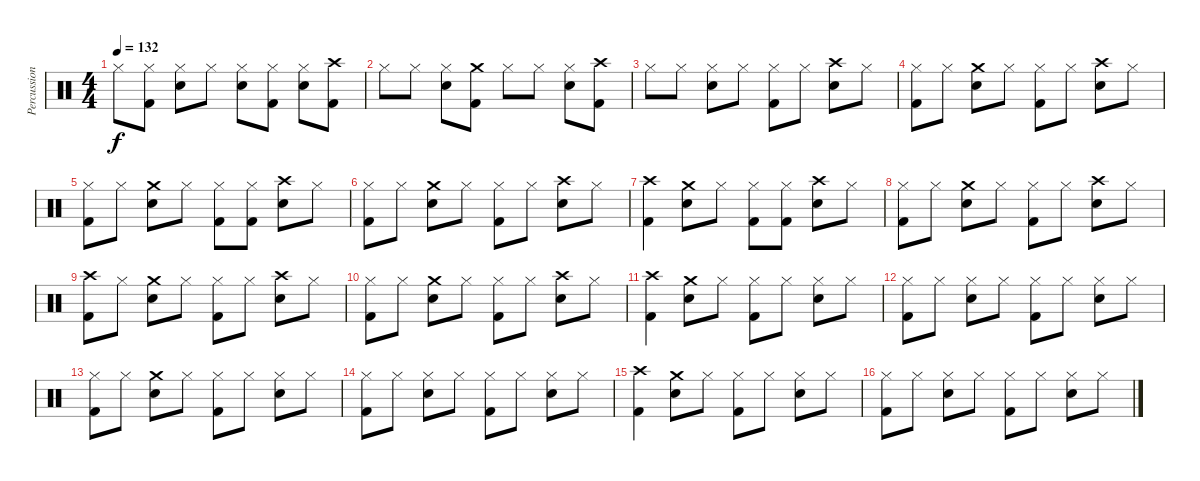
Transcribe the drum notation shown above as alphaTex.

\track ("Percussion" "Percussion") {instrument percussion}
\staff {score}
\articulation defaults
\ts (4 4)
\tempo 132
\clef neutral
\ks c "Hi-Hat (closed)".8{dy f}
("Hi-Hat (closed)" "Kick (hit) 2").8 ("Hi-Hat (closed)" "Snare (hit) 2").8 "Hi-Hat (closed)".8 ("Hi-Hat (closed)" "Snare (hit) 2").8 ("Hi-Hat (closed)" "Kick (hit) 2").8 ("Hi-Hat (closed)" "Snare (hit) 2").8 ("Crash high (hit)" "Kick (hit) 2").8 |
"Hi-Hat (closed)".8 "Hi-Hat (closed)".8 ("Hi-Hat (closed)" "Snare (hit) 2").8 ("Crash medium (hit)" "Kick (hit) 2").8 "Hi-Hat (closed)".8 "Hi-Hat (closed)".8 ("Hi-Hat (closed)" "Snare (hit) 2").8 ("Crash high (hit)" "Kick (hit) 2").8 |
"Hi-Hat (closed)".8 "Hi-Hat (closed)".8 ("Hi-Hat (closed)" "Snare (hit) 2").8 "Hi-Hat (closed)".8 ("Hi-Hat (closed)" "Kick (hit) 2").8 "Hi-Hat (closed)".8 ("Crash high (hit)" "Snare (hit) 2").8 "Hi-Hat (closed)".8 |
("Hi-Hat (closed)" "Kick (hit) 2").8 "Hi-Hat (closed)".8 ("Crash medium (hit)" "Snare (hit) 2").8 "Hi-Hat (closed)".8 ("Hi-Hat (closed)" "Kick (hit) 2").8 "Hi-Hat (closed)".8 ("Crash high (hit)" "Snare (hit) 2").8 "Hi-Hat (closed)".8 |
("Hi-Hat (closed)" "Kick (hit) 2").8 "Hi-Hat (closed)".8 ("Crash medium (hit)" "Snare (hit) 2").8 "Hi-Hat (closed)".8 ("Hi-Hat (closed)" "Kick (hit) 2").8 ("Hi-Hat (closed)" "Kick (hit) 2").8 ("Crash high (hit)" "Snare (hit) 2").8 "Hi-Hat (closed)".8 |
("Hi-Hat (closed)" "Kick (hit) 2").8 "Hi-Hat (closed)".8 ("Crash medium (hit)" "Snare (hit) 2").8 "Hi-Hat (closed)".8 ("Hi-Hat (closed)" "Kick (hit) 2").8 "Hi-Hat (closed)".8 ("Crash high (hit)" "Snare (hit) 2").8 "Hi-Hat (closed)".8 |
("Crash high (hit)" "Kick (hit) 2").4 ("Crash medium (hit)" "Snare (hit) 2").8 "Hi-Hat (closed)".8 ("Hi-Hat (closed)" "Kick (hit) 2").8 ("Hi-Hat (closed)" "Kick (hit) 2").8 ("Crash high (hit)" "Snare (hit) 2").8 "Hi-Hat (closed)".8 |
("Hi-Hat (closed)" "Kick (hit) 2").8 "Hi-Hat (closed)".8 ("Crash medium (hit)" "Snare (hit) 2").8 "Hi-Hat (closed)".8 ("Hi-Hat (closed)" "Kick (hit) 2").8 "Hi-Hat (closed)".8 ("Crash high (hit)" "Snare (hit) 2").8 "Hi-Hat (closed)".8 |
("Crash high (hit)" "Kick (hit) 2").8 "Hi-Hat (closed)".8 ("Crash medium (hit)" "Snare (hit) 2").8 "Hi-Hat (closed)".8 ("Hi-Hat (closed)" "Kick (hit) 2").8 "Hi-Hat (closed)".8 ("Crash high (hit)" "Snare (hit) 2").8 "Hi-Hat (closed)".8 |
("Hi-Hat (closed)" "Kick (hit) 2").8 "Hi-Hat (closed)".8 ("Crash medium (hit)" "Snare (hit) 2").8 "Hi-Hat (closed)".8 ("Hi-Hat (closed)" "Kick (hit) 2").8 "Hi-Hat (closed)".8 ("Crash high (hit)" "Snare (hit) 2").8 "Hi-Hat (closed)".8 |
("Crash high (hit)" "Kick (hit) 2").4 ("Crash medium (hit)" "Snare (hit) 2").8 "Hi-Hat (closed)".8 ("Hi-Hat (closed)" "Kick (hit) 2").8 "Hi-Hat (closed)".8 ("Hi-Hat (closed)" "Snare (hit) 2").8 "Hi-Hat (closed)".8 |
("Hi-Hat (closed)" "Kick (hit) 2").8 "Hi-Hat (closed)".8 ("Hi-Hat (closed)" "Snare (hit) 2").8 "Hi-Hat (closed)".8 ("Hi-Hat (closed)" "Kick (hit) 2").8 "Hi-Hat (closed)".8 ("Hi-Hat (closed)" "Snare (hit) 2").8 "Hi-Hat (closed)".8 |
("Hi-Hat (closed)" "Kick (hit) 2").8 "Hi-Hat (closed)".8 ("Crash medium (hit)" "Snare (hit) 2").8 "Hi-Hat (closed)".8 ("Hi-Hat (closed)" "Kick (hit) 2").8 "Hi-Hat (closed)".8 ("Hi-Hat (closed)" "Snare (hit) 2").8 "Hi-Hat (closed)".8 |
("Hi-Hat (closed)" "Kick (hit) 2").8 "Hi-Hat (closed)".8 ("Hi-Hat (closed)" "Snare (hit) 2").8 "Hi-Hat (closed)".8 ("Hi-Hat (closed)" "Kick (hit) 2").8 "Hi-Hat (closed)".8 ("Hi-Hat (closed)" "Snare (hit) 2").8 "Hi-Hat (closed)".8 |
("Crash high (hit)" "Kick (hit) 2").4 ("Crash medium (hit)" "Snare (hit) 2").8 "Hi-Hat (closed)".8 ("Hi-Hat (closed)" "Kick (hit) 2").8 "Hi-Hat (closed)".8 ("Hi-Hat (closed)" "Snare (hit) 2").8 "Hi-Hat (closed)".8 |
("Hi-Hat (closed)" "Kick (hit) 2").8 "Hi-Hat (closed)".8 ("Hi-Hat (closed)" "Snare (hit) 2").8 "Hi-Hat (closed)".8 ("Hi-Hat (closed)" "Kick (hit) 2").8 "Hi-Hat (closed)".8 ("Hi-Hat (closed)" "Snare (hit) 2").8 "Hi-Hat (closed)".8
